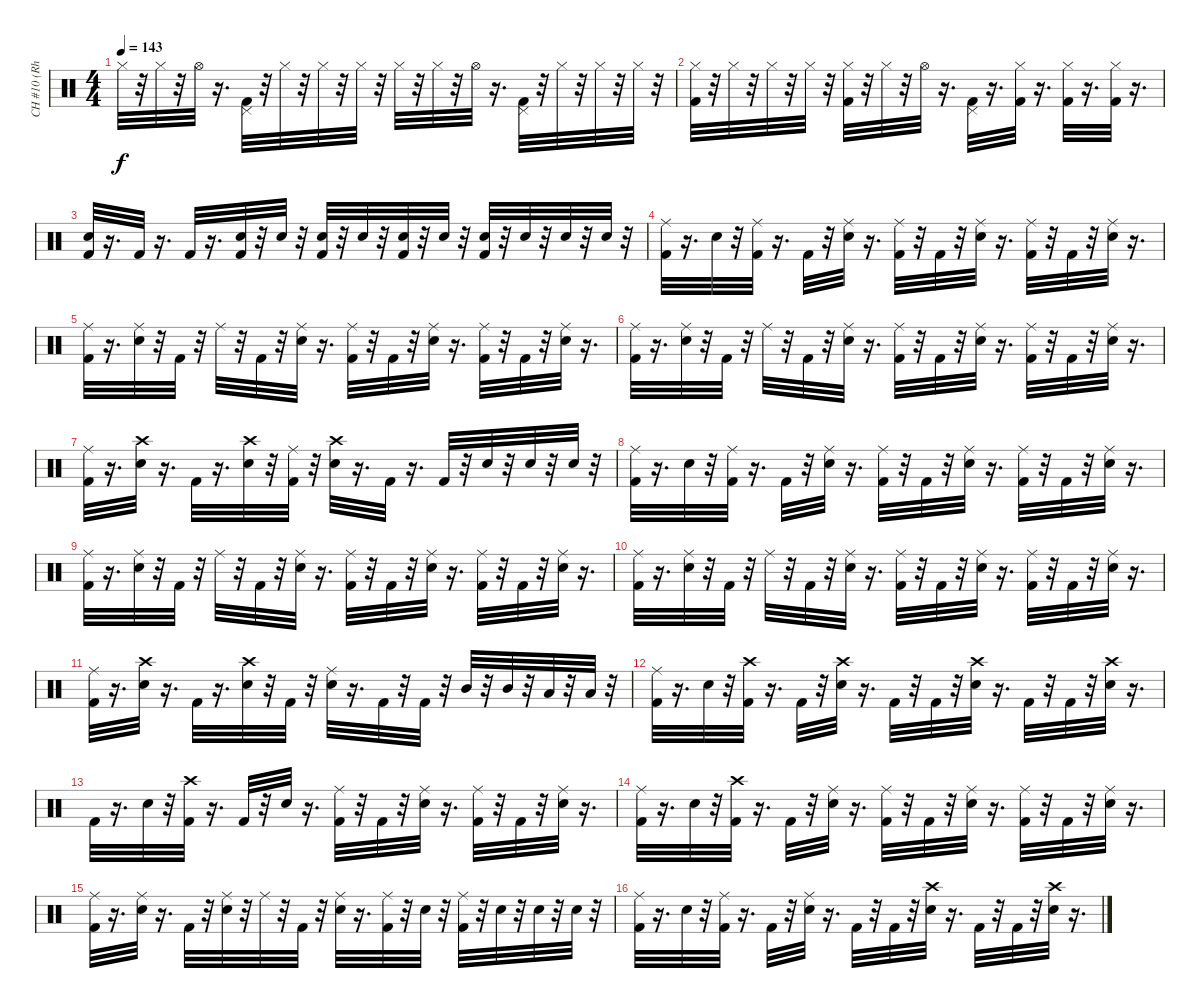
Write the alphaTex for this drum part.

\track ("CH #10 (Rhythm channel)" "CH #10 (Rh") {instrument percussion}
\staff {score}
\articulation defaults
\ts (4 4)
\tempo 143
\clef neutral
\ks c "Hi-Hat (closed)".32{dy f}
r.32 "Hi-Hat (closed)".32 r.32 "Hi-Hat (open)".32 r.16{d} ("Pedal Hi-Hat (hit)" "Kick (hit) 2").32 r.32 "Hi-Hat (closed)".32 r.32 "Hi-Hat (closed)".32 r.32 "Hi-Hat (closed)".32 r.32 "Hi-Hat (closed)".32 r.32 "Hi-Hat (closed)".32 r.32 "Hi-Hat (open)".32 r.16{d} ("Kick (hit) 2" "Pedal Hi-Hat (hit)").32 r.32 "Hi-Hat (closed)".32 r.32 "Hi-Hat (closed)".32 r.32 "Hi-Hat (closed)".32 r.32 |
("Kick (hit) 2" "Hi-Hat (closed)").32 r.32 "Hi-Hat (closed)".32 r.32 "Hi-Hat (closed)".32 r.32 "Hi-Hat (closed)".32 r.32 ("Kick (hit) 2" "Hi-Hat (closed)").32 r.32 "Hi-Hat (closed)".32 r.32 "Hi-Hat (open)".32 r.16{d} ("Pedal Hi-Hat (hit)" "Kick (hit) 2").32 r.16{d} ("Hi-Hat (closed)" "Kick (hit) 2").32 r.16{d} ("Hi-Hat (closed)" "Kick (hit) 2").32 r.16{d} ("Hi-Hat (closed)" "Kick (hit) 2").32 r.16{d} |
("Electric Snare (hit)" "Kick (hit) 2").32 r.16{d} "Kick (hit) 2".32 r.16{d} "Kick (hit) 2".32 r.16{d} ("Kick (hit) 2" "Electric Snare (hit)").32 r.32 "Electric Snare (hit)".32 r.32 ("Kick (hit) 2" "Electric Snare (hit)").32 r.32 "Electric Snare (hit)".32 r.32 ("Kick (hit) 2" "Electric Snare (hit)").32 r.32 "Electric Snare (hit)".32 r.32 ("Kick (hit) 2" "Electric Snare (hit)").32 r.32 "Electric Snare (hit)".32 r.32 "Electric Snare (hit)".32 r.32 "Electric Snare (hit)".32 r.32 |
("Kick (hit) 2" "Ride (middle)").32 r.16{d} "Electric Snare (hit)".32 r.32 ("Kick (hit) 2" "Ride (middle)").32 r.16{d} "Kick (hit) 2".32 r.32 ("Electric Snare (hit)" "Ride (middle)").32 r.16{d} ("Ride (middle)" "Kick (hit) 2").32 r.32 "Kick (hit) 2".32 r.32 ("Electric Snare (hit)" "Ride (middle)").32 r.16{d} ("Ride (middle)" "Kick (hit) 2").32 r.32 "Kick (hit) 2".32 r.32 ("Electric Snare (hit)" "Ride (middle)").32 r.16{d} |
("Kick (hit) 2" "Ride (middle)").32 r.16{d} ("Electric Snare (hit)" "Ride (middle)").32 r.32 "Kick (hit) 2".32 r.32 "Ride (middle)".32 r.32 "Kick (hit) 2".32 r.32 ("Electric Snare (hit)" "Ride (middle)").32 r.16{d} ("Kick (hit) 2" "Ride (middle)").32 r.32 "Kick (hit) 2".32 r.32 ("Electric Snare (hit)" "Ride (middle)").32 r.16{d} ("Kick (hit) 2" "Ride (middle)").32 r.32 "Kick (hit) 2".32 r.32 ("Electric Snare (hit)" "Ride (middle)").32 r.16{d} |
("Kick (hit) 2" "Ride (middle)").32 r.16{d} ("Electric Snare (hit)" "Ride (middle)").32 r.32 "Kick (hit) 2".32 r.32 "Ride (middle)".32 r.32 "Kick (hit) 2".32 r.32 ("Electric Snare (hit)" "Ride (middle)").32 r.16{d} ("Kick (hit) 2" "Ride (middle)").32 r.32 "Kick (hit) 2".32 r.32 ("Electric Snare (hit)" "Ride (middle)").32 r.16{d} ("Kick (hit) 2" "Ride (middle)").32 r.32 "Kick (hit) 2".32 r.32 ("Electric Snare (hit)" "Ride (middle)").32 r.16{d} |
("Ride (middle)" "Kick (hit) 2").32 r.16{d} ("Crash high (hit)" "Electric Snare (hit)").32 r.16{d} "Kick (hit) 2".32 r.16{d} ("Crash high (hit)" "Electric Snare (hit)").32 r.32 ("Ride (middle)" "Kick (hit) 2").32 r.32 ("Electric Snare (hit)" "Crash high (hit)").32 r.16{d} "Kick (hit) 2".32 r.16{d} "Kick (hit) 2".32 r.32 "Electric Snare (hit)".32 r.32 "Electric Snare (hit)".32 r.32 "Electric Snare (hit)".32 r.32 |
("Kick (hit) 2" "Ride (middle)").32 r.16{d} "Electric Snare (hit)".32 r.32 ("Kick (hit) 2" "Ride (middle)").32 r.16{d} "Kick (hit) 2".32 r.32 ("Electric Snare (hit)" "Ride (middle)").32 r.16{d} ("Ride (middle)" "Kick (hit) 2").32 r.32 "Kick (hit) 2".32 r.32 ("Electric Snare (hit)" "Ride (middle)").32 r.16{d} ("Ride (middle)" "Kick (hit) 2").32 r.32 "Kick (hit) 2".32 r.32 ("Electric Snare (hit)" "Ride (middle)").32 r.16{d} |
("Kick (hit) 2" "Ride (middle)").32 r.16{d} ("Electric Snare (hit)" "Ride (middle)").32 r.32 "Kick (hit) 2".32 r.32 "Ride (middle)".32 r.32 "Kick (hit) 2".32 r.32 ("Electric Snare (hit)" "Ride (middle)").32 r.16{d} ("Kick (hit) 2" "Ride (middle)").32 r.32 "Kick (hit) 2".32 r.32 ("Electric Snare (hit)" "Ride (middle)").32 r.16{d} ("Kick (hit) 2" "Ride (middle)").32 r.32 "Kick (hit) 2".32 r.32 ("Electric Snare (hit)" "Ride (middle)").32 r.16{d} |
("Kick (hit) 2" "Ride (middle)").32 r.16{d} ("Electric Snare (hit)" "Ride (middle)").32 r.32 "Kick (hit) 2".32 r.32 "Ride (middle)".32 r.32 "Kick (hit) 2".32 r.32 ("Electric Snare (hit)" "Ride (middle)").32 r.16{d} ("Kick (hit) 2" "Ride (middle)").32 r.32 "Kick (hit) 2".32 r.32 ("Electric Snare (hit)" "Ride (middle)").32 r.16{d} ("Kick (hit) 2" "Ride (middle)").32 r.32 "Kick (hit) 2".32 r.32 ("Electric Snare (hit)" "Ride (middle)").32 r.16{d} |
("Ride (middle)" "Kick (hit) 2").32 r.16{d} ("Crash high (hit)" "Electric Snare (hit)").32 r.16{d} "Kick (hit) 2".32 r.16{d} ("Crash high (hit)" "Electric Snare (hit)").32 r.32 "Kick (hit) 2".32 r.32 ("Electric Snare (hit)" "Ride (middle)").32 r.16{d} "Kick (hit) 2".32 r.32 "Kick (hit) 2".32 r.32 "Mid Tom (hit)".32 r.32 "Mid Tom (hit)".32 r.32 "Low Tom (hit)".32 r.32 "Low Tom (hit)".32 r.32 |
("Kick (hit) 2" "Ride (middle)").32 r.16{d} "Electric Snare (hit)".32 r.32 ("Kick (hit) 2" "Crash high (hit)").32 r.16{d} "Kick (hit) 2".32 r.32 ("Electric Snare (hit)" "Crash high (hit)").32 r.16{d} "Kick (hit) 2".32 r.32 "Kick (hit) 2".32 r.32 ("Electric Snare (hit)" "Crash high (hit)").32 r.16{d} "Kick (hit) 2".32 r.32 "Kick (hit) 2".32 r.32 ("Electric Snare (hit)" "Crash high (hit)").32 r.16{d} |
"Kick (hit) 2".32 r.16{d} "Electric Snare (hit)".32 r.32 ("Kick (hit) 2" "Crash high (hit)").32 r.16{d} "Kick (hit) 2".32 r.32 "Electric Snare (hit)".32 r.16{d} ("Kick (hit) 2" "Ride (middle)").32 r.32 "Kick (hit) 2".32 r.32 ("Electric Snare (hit)" "Ride (middle)").32 r.16{d} ("Kick (hit) 2" "Ride (middle)").32 r.32 "Kick (hit) 2".32 r.32 ("Electric Snare (hit)" "Ride (middle)").32 r.16{d} |
("Kick (hit) 2" "Ride (middle)").32 r.16{d} "Electric Snare (hit)".32 r.32 ("Kick (hit) 2" "Crash high (hit)").32 r.16{d} "Kick (hit) 2".32 r.32 ("Electric Snare (hit)" "Ride (middle)").32 r.16{d} ("Kick (hit) 2" "Ride (middle)").32 r.32 "Kick (hit) 2".32 r.32 ("Electric Snare (hit)" "Ride (middle)").32 r.16{d} ("Kick (hit) 2" "Ride (middle)").32 r.32 "Kick (hit) 2".32 r.32 ("Electric Snare (hit)" "Ride (middle)").32 r.16{d} |
("Ride (middle)" "Kick (hit) 2").32 r.16{d} ("Ride (middle)" "Electric Snare (hit)").32 r.16{d} "Kick (hit) 2".32 r.32 ("Ride (middle)" "Electric Snare (hit)").32 r.32 "Ride (middle)".32 r.32 "Kick (hit) 2".32 r.32 ("Ride (middle)" "Electric Snare (hit)").32 r.16{d} ("Ride (middle)" "Kick (hit) 2").32 r.32 "Electric Snare (hit)".32 r.32 ("Ride (middle)" "Kick (hit) 2").32 r.32 "Electric Snare (hit)".32 r.32 "Electric Snare (hit)".32 r.32 "Electric Snare (hit)".32 r.32 |
("Kick (hit) 2" "Ride (middle)").32 r.16{d} "Electric Snare (hit)".32 r.32 ("Kick (hit) 2" "Ride (middle)").32 r.16{d} "Kick (hit) 2".32 r.32 ("Electric Snare (hit)" "Ride (middle)").32 r.16{d} "Kick (hit) 2".32 r.32 "Kick (hit) 2".32 r.32 ("Electric Snare (hit)" "Crash high (hit)").32 r.16{d} "Kick (hit) 2".32 r.32 "Kick (hit) 2".32 r.32 ("Electric Snare (hit)" "Crash high (hit)").32 r.16{d}
